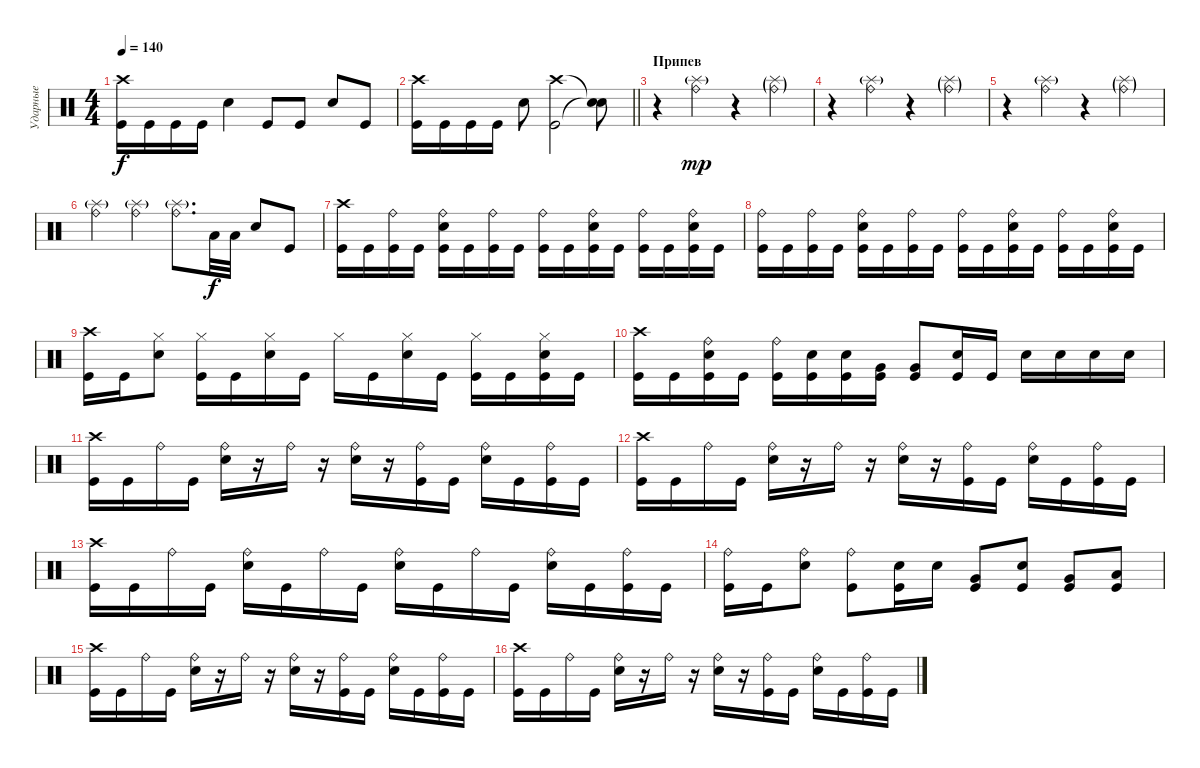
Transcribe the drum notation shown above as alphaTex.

\track ("Ударные" "Ударные") {instrument percussion}
\staff {score}
\articulation defaults
\ts (4 4)
\tempo 140
\clef neutral
\ks c
("Crash high (hit)" "Kick (hit)").16{dy f} "Kick (hit)".16 "Kick (hit)".16 "Kick (hit)".16 "Electric Snare (hit)".4 "Kick (hit)".8 "Kick (hit)".8 "Electric Snare (hit)".8 "Kick (hit)".8 |
\barLineRight lightlight
("Crash high (hit)" "Kick (hit)").16 "Kick (hit)".16 "Kick (hit)".16 "Kick (hit)".16 "Electric Snare (hit)".8 ("Crash high (hit)" "Kick (hit)").2 ("Snare (hit)"{t} "Snare (hit)"{t}).8 |
\section ("" "Припев")
r.4 ("Splash (hit)"{g} "Ride (bell)").4{dy mp} r.4 ("Splash (hit)"{g} "Ride (bell)"{g}).4 |
r.4 ("Splash (hit)"{g} "Ride (bell)").4 r.4 ("Splash (hit)"{g} "Ride (bell)"{g}).4 |
r.4 ("Splash (hit)"{g} "Ride (bell)").4 r.4 ("Splash (hit)"{g} "Ride (bell)"{g}).4 |
("Splash (hit)"{g} "Ride (bell)").4 ("Splash (hit)"{g} "Ride (bell)").4 ("Splash (hit)"{g} "Ride (bell)").8{d} "Low Tom (hit)".32{dy f} "Low Tom (hit)".32 "Electric Snare (hit)".8 "Kick (hit)".8 |
("Crash high (hit)" "Kick (hit)").16 "Kick (hit)".16 ("Ride (bell)" "Kick (hit)").16 "Kick (hit)".16 ("Ride (bell)" "Electric Snare (hit)" "Kick (hit)").16 "Kick (hit)".16 ("Ride (bell)" "Kick (hit)").16 "Kick (hit)".16 ("Ride (bell)" "Kick (hit)").16 "Kick (hit)".16 ("Ride (bell)" "Electric Snare (hit)" "Kick (hit)").16 "Kick (hit)".16 ("Ride (bell)" "Kick (hit)").16 "Kick (hit)".16 ("Ride (bell)" "Electric Snare (hit)" "Kick (hit)").16 "Kick (hit)".16 |
("Ride (bell)" "Kick (hit)").16 "Kick (hit)".16 ("Ride (bell)" "Kick (hit)").16 "Kick (hit)".16 ("Ride (bell)" "Electric Snare (hit)" "Kick (hit)").16 "Kick (hit)".16 ("Ride (bell)" "Kick (hit)").16 "Kick (hit)".16 ("Ride (bell)" "Kick (hit)").16 "Kick (hit)".16 ("Ride (bell)" "Electric Snare (hit)" "Kick (hit)").16 "Kick (hit)".16 ("Ride (bell)" "Kick (hit)").16 "Kick (hit)".16 ("Ride (bell)" "Electric Snare (hit)" "Kick (hit)").16 "Kick (hit)".16 |
("Crash high (hit)" "Kick (hit)").16 "Kick (hit)".16 ("Hi-Hat (closed)" "Electric Snare (hit)").8 ("Hi-Hat (closed)" "Kick (hit)").16 "Kick (hit)".16 ("Hi-Hat (closed)" "Electric Snare (hit)").16 "Kick (hit)".16 "Hi-Hat (closed)".16 "Kick (hit)".16 ("Hi-Hat (closed)" "Electric Snare (hit)").16 "Kick (hit)".16 ("Hi-Hat (closed)" "Kick (hit)").16 "Kick (hit)".16 ("Hi-Hat (closed)" "Electric Snare (hit)" "Kick (hit)").16 "Kick (hit)".16 |
("Crash high (hit)" "Kick (hit)").16 "Kick (hit)".16 ("Ride (bell)" "Electric Snare (hit)" "Kick (hit)").16 "Kick (hit)".16 ("Ride (bell)" "Kick (hit)").16 ("Electric Snare (hit)" "Kick (hit)").16 ("Electric Snare (hit)" "Kick (hit)").16 ("Very Low Tom (hit)" "Kick (hit)").16 ("Very Low Tom (hit)" "Kick (hit)").8 ("Electric Snare (hit)" "Kick (hit)").16 "Kick (hit)".16 "Electric Snare (hit)".16 "Electric Snare (hit)".16 "Electric Snare (hit)".16 "Electric Snare (hit)".16 |
("Crash high (hit)" "Kick (hit)").16 "Kick (hit)".16 "Ride (bell)".16 "Kick (hit)".16 ("Ride (bell)" "Electric Snare (hit)").16 r.16 "Ride (bell)".16 r.16 ("Ride (bell)" "Electric Snare (hit)").16 r.16 ("Ride (bell)" "Kick (hit)").16 "Kick (hit)".16 ("Ride (bell)" "Electric Snare (hit)").16 "Kick (hit)".16 ("Ride (bell)" "Kick (hit)").16 "Kick (hit)".16 |
("Crash high (hit)" "Kick (hit)").16 "Kick (hit)".16 "Ride (bell)".16 "Kick (hit)".16 ("Ride (bell)" "Electric Snare (hit)").16 r.16 "Ride (bell)".16 r.16 ("Ride (bell)" "Electric Snare (hit)").16 r.16 ("Ride (bell)" "Kick (hit)").16 "Kick (hit)".16 ("Ride (bell)" "Electric Snare (hit)").16 "Kick (hit)".16 ("Ride (bell)" "Kick (hit)").16 "Kick (hit)".16 |
("Crash high (hit)" "Kick (hit)").16 "Kick (hit)".16 "Ride (bell)".16 "Kick (hit)".16 ("Ride (bell)" "Electric Snare (hit)").16 "Kick (hit)".16 "Ride (bell)".16 "Kick (hit)".16 ("Ride (bell)" "Electric Snare (hit)").16 "Kick (hit)".16 "Ride (bell)".16 "Kick (hit)".16 ("Ride (bell)" "Electric Snare (hit)").16 "Kick (hit)".16 ("Ride (bell)" "Kick (hit)").16 "Kick (hit)".16 |
("Ride (bell)" "Kick (hit)").16 "Kick (hit)".16 ("Ride (bell)" "Electric Snare (hit)").8 ("Ride (bell)" "Kick (hit)").8 ("Electric Snare (hit)" "Kick (hit)").16 "Electric Snare (hit)".16 ("Very Low Tom (hit)" "Kick (hit)").8 ("Electric Snare (hit)" "Kick (hit)").8 ("Very Low Tom (hit)" "Kick (hit)").8 ("Low Tom (hit)" "Kick (hit)").8 |
("Crash high (hit)" "Kick (hit)").16 "Kick (hit)".16 "Ride (bell)".16 "Kick (hit)".16 ("Ride (bell)" "Electric Snare (hit)").16 r.16 "Ride (bell)".16 r.16 ("Ride (bell)" "Electric Snare (hit)").16 r.16 ("Ride (bell)" "Kick (hit)").16 "Kick (hit)".16 ("Ride (bell)" "Electric Snare (hit)").16 "Kick (hit)".16 ("Ride (bell)" "Kick (hit)").16 "Kick (hit)".16 |
("Crash high (hit)" "Kick (hit)").16 "Kick (hit)".16 "Ride (bell)".16 "Kick (hit)".16 ("Ride (bell)" "Electric Snare (hit)").16 r.16 "Ride (bell)".16 r.16 ("Ride (bell)" "Electric Snare (hit)").16 r.16 ("Ride (bell)" "Kick (hit)").16 "Kick (hit)".16 ("Ride (bell)" "Electric Snare (hit)").16 "Kick (hit)".16 ("Ride (bell)" "Kick (hit)").16 "Kick (hit)".16
